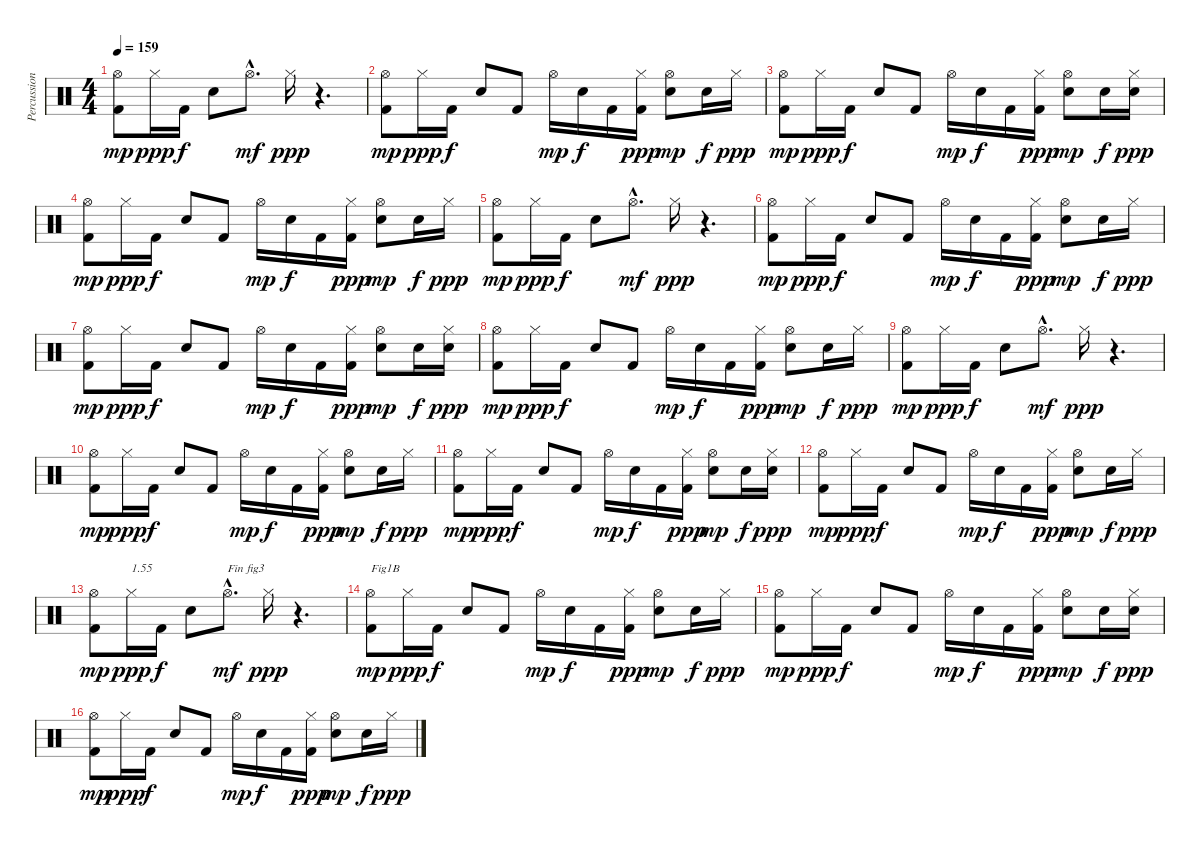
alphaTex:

\track ("Percussions" "Percussion") {instrument percussion}
\staff {score}
\articulation defaults
\ts (4 4)
\tempo 159
\clef neutral
\ks c
("Kick (hit) 2" "Hi-Hat (open)").8{dy mp} "Hi-Hat (closed)".16{dy ppp} "Kick (hit) 2".16{dy f} "Electric Snare (hit)".8 "Hi-Hat (open)"{hac}.8{d dy mf} "Hi-Hat (closed)".16{dy ppp} r.4{d} |
("Kick (hit) 2" "Hi-Hat (open)").8{dy mp} "Hi-Hat (closed)".16{dy ppp} "Kick (hit) 2".16{dy f} "Electric Snare (hit)".8 "Kick (hit) 2".8 "Hi-Hat (open)".16{dy mp} "Electric Snare (hit)".16{dy f} "Kick (hit) 2".16 ("Kick (hit) 2" "Hi-Hat (closed)").16{dy ppp} ("Electric Snare (hit)" "Hi-Hat (open)").8{dy mp} "Electric Snare (hit)".16{dy f} "Hi-Hat (closed)".16{dy ppp} |
("Kick (hit) 2" "Hi-Hat (open)").8{dy mp} "Hi-Hat (closed)".16{dy ppp} "Kick (hit) 2".16{dy f} "Electric Snare (hit)".8 "Kick (hit) 2".8 "Hi-Hat (open)".16{dy mp} "Electric Snare (hit)".16{dy f} "Kick (hit) 2".16 ("Kick (hit) 2" "Hi-Hat (closed)").16{dy ppp} ("Electric Snare (hit)" "Hi-Hat (open)").8{dy mp} "Electric Snare (hit)".16{dy f} ("Electric Snare (hit)" "Hi-Hat (closed)").16{dy ppp} |
("Kick (hit) 2" "Hi-Hat (open)").8{dy mp} "Hi-Hat (closed)".16{dy ppp} "Kick (hit) 2".16{dy f} "Electric Snare (hit)".8 "Kick (hit) 2".8 "Hi-Hat (open)".16{dy mp} "Electric Snare (hit)".16{dy f} "Kick (hit) 2".16 ("Kick (hit) 2" "Hi-Hat (closed)").16{dy ppp} ("Electric Snare (hit)" "Hi-Hat (open)").8{dy mp} "Electric Snare (hit)".16{dy f} "Hi-Hat (closed)".16{dy ppp} |
("Kick (hit) 2" "Hi-Hat (open)").8{dy mp} "Hi-Hat (closed)".16{dy ppp} "Kick (hit) 2".16{dy f} "Electric Snare (hit)".8 "Hi-Hat (open)"{hac}.8{d dy mf} "Hi-Hat (closed)".16{dy ppp} r.4{d} |
("Kick (hit) 2" "Hi-Hat (open)").8{dy mp} "Hi-Hat (closed)".16{dy ppp} "Kick (hit) 2".16{dy f} "Electric Snare (hit)".8 "Kick (hit) 2".8 "Hi-Hat (open)".16{dy mp} "Electric Snare (hit)".16{dy f} "Kick (hit) 2".16 ("Kick (hit) 2" "Hi-Hat (closed)").16{dy ppp} ("Electric Snare (hit)" "Hi-Hat (open)").8{dy mp} "Electric Snare (hit)".16{dy f} "Hi-Hat (closed)".16{dy ppp} |
("Kick (hit) 2" "Hi-Hat (open)").8{dy mp} "Hi-Hat (closed)".16{dy ppp} "Kick (hit) 2".16{dy f} "Electric Snare (hit)".8 "Kick (hit) 2".8 "Hi-Hat (open)".16{dy mp} "Electric Snare (hit)".16{dy f} "Kick (hit) 2".16 ("Kick (hit) 2" "Hi-Hat (closed)").16{dy ppp} ("Electric Snare (hit)" "Hi-Hat (open)").8{dy mp} "Electric Snare (hit)".16{dy f} ("Electric Snare (hit)" "Hi-Hat (closed)").16{dy ppp} |
("Kick (hit) 2" "Hi-Hat (open)").8{dy mp} "Hi-Hat (closed)".16{dy ppp} "Kick (hit) 2".16{dy f} "Electric Snare (hit)".8 "Kick (hit) 2".8 "Hi-Hat (open)".16{dy mp} "Electric Snare (hit)".16{dy f} "Kick (hit) 2".16 ("Kick (hit) 2" "Hi-Hat (closed)").16{dy ppp} ("Electric Snare (hit)" "Hi-Hat (open)").8{dy mp} "Electric Snare (hit)".16{dy f} "Hi-Hat (closed)".16{dy ppp} |
("Kick (hit) 2" "Hi-Hat (open)").8{dy mp} "Hi-Hat (closed)".16{dy ppp} "Kick (hit) 2".16{dy f} "Electric Snare (hit)".8 "Hi-Hat (open)"{hac}.8{d dy mf} "Hi-Hat (closed)".16{dy ppp} r.4{d} |
("Kick (hit) 2" "Hi-Hat (open)").8{dy mp} "Hi-Hat (closed)".16{dy ppp} "Kick (hit) 2".16{dy f} "Electric Snare (hit)".8 "Kick (hit) 2".8 "Hi-Hat (open)".16{dy mp} "Electric Snare (hit)".16{dy f} "Kick (hit) 2".16 ("Kick (hit) 2" "Hi-Hat (closed)").16{dy ppp} ("Electric Snare (hit)" "Hi-Hat (open)").8{dy mp} "Electric Snare (hit)".16{dy f} "Hi-Hat (closed)".16{dy ppp} |
("Kick (hit) 2" "Hi-Hat (open)").8{dy mp} "Hi-Hat (closed)".16{dy ppp} "Kick (hit) 2".16{dy f} "Electric Snare (hit)".8 "Kick (hit) 2".8 "Hi-Hat (open)".16{dy mp} "Electric Snare (hit)".16{dy f} "Kick (hit) 2".16 ("Kick (hit) 2" "Hi-Hat (closed)").16{dy ppp} ("Electric Snare (hit)" "Hi-Hat (open)").8{dy mp} "Electric Snare (hit)".16{dy f} ("Electric Snare (hit)" "Hi-Hat (closed)").16{dy ppp} |
("Kick (hit) 2" "Hi-Hat (open)").8{dy mp} "Hi-Hat (closed)".16{dy ppp} "Kick (hit) 2".16{dy f} "Electric Snare (hit)".8 "Kick (hit) 2".8 "Hi-Hat (open)".16{dy mp} "Electric Snare (hit)".16{dy f} "Kick (hit) 2".16 ("Kick (hit) 2" "Hi-Hat (closed)").16{dy ppp} ("Electric Snare (hit)" "Hi-Hat (open)").8{dy mp} "Electric Snare (hit)".16{dy f} "Hi-Hat (closed)".16{dy ppp} |
("Kick (hit) 2" "Hi-Hat (open)").8{dy mp} "Hi-Hat (closed)".16{txt "1.55" dy ppp} "Kick (hit) 2".16{dy f} "Electric Snare (hit)".8 "Hi-Hat (open)"{hac}.8{d txt "Fin fig3" dy mf} "Hi-Hat (closed)".16{dy ppp} r.4{d} |
("Kick (hit) 2" "Hi-Hat (open)").8{txt "Fig1B" dy mp} "Hi-Hat (closed)".16{dy ppp} "Kick (hit) 2".16{dy f} "Electric Snare (hit)".8 "Kick (hit) 2".8 "Hi-Hat (open)".16{dy mp} "Electric Snare (hit)".16{dy f} "Kick (hit) 2".16 ("Kick (hit) 2" "Hi-Hat (closed)").16{dy ppp} ("Electric Snare (hit)" "Hi-Hat (open)").8{dy mp} "Electric Snare (hit)".16{dy f} "Hi-Hat (closed)".16{dy ppp} |
("Kick (hit) 2" "Hi-Hat (open)").8{dy mp} "Hi-Hat (closed)".16{dy ppp} "Kick (hit) 2".16{dy f} "Electric Snare (hit)".8 "Kick (hit) 2".8 "Hi-Hat (open)".16{dy mp} "Electric Snare (hit)".16{dy f} "Kick (hit) 2".16 ("Kick (hit) 2" "Hi-Hat (closed)").16{dy ppp} ("Electric Snare (hit)" "Hi-Hat (open)").8{dy mp} "Electric Snare (hit)".16{dy f} ("Electric Snare (hit)" "Hi-Hat (closed)").16{dy ppp} |
("Kick (hit) 2" "Hi-Hat (open)").8{dy mp} "Hi-Hat (closed)".16{dy ppp} "Kick (hit) 2".16{dy f} "Electric Snare (hit)".8 "Kick (hit) 2".8 "Hi-Hat (open)".16{dy mp} "Electric Snare (hit)".16{dy f} "Kick (hit) 2".16 ("Kick (hit) 2" "Hi-Hat (closed)").16{dy ppp} ("Electric Snare (hit)" "Hi-Hat (open)").8{dy mp} "Electric Snare (hit)".16{dy f} "Hi-Hat (closed)".16{dy ppp}
